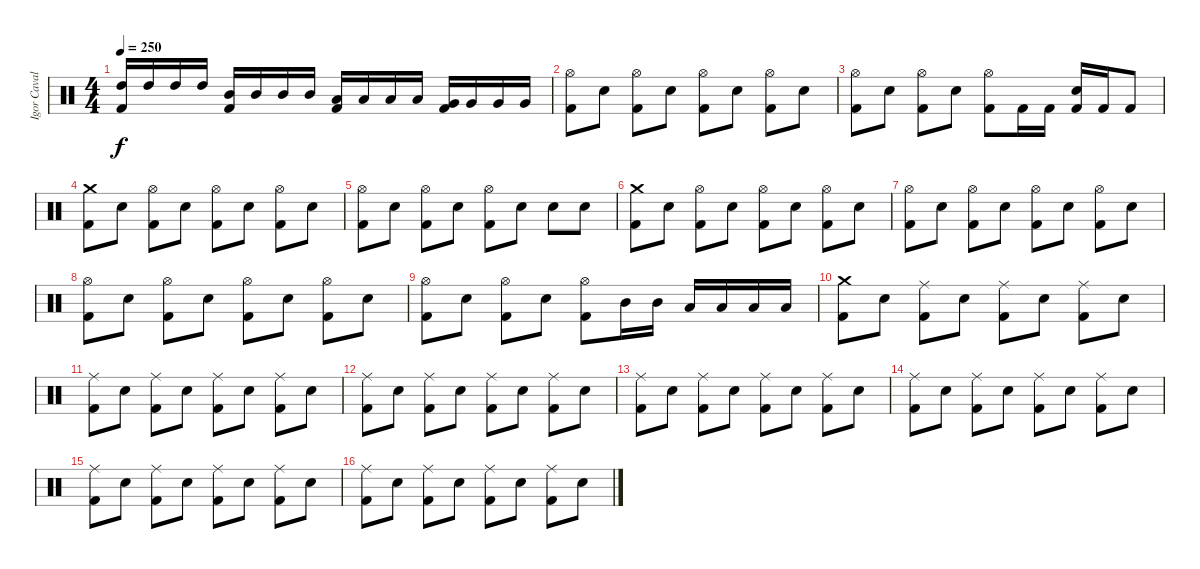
\track ("Igor Cavalera" "Igor Caval") {instrument percussion}
\staff {score}
\articulation defaults
\ts (4 4)
\tempo 250
\clef neutral
\ks c
("Kick (hit) 2" "High Tom (hit)").16{dy f} "High Tom (hit)".16 "High Tom (hit)".16 "High Tom (hit)".16 ("Kick (hit) 2" "Mid Tom (hit)").16 "Mid Tom (hit)".16 "Mid Tom (hit)".16 "Mid Tom (hit)".16 ("Kick (hit) 2" "Low Tom (hit)").16 "Low Tom (hit)".16 "Low Tom (hit)".16 "Low Tom (hit)".16 ("Kick (hit) 2" "Very Low Tom (hit)").16 "Very Low Tom (hit)".16 "Very Low Tom (hit)".16 "Very Low Tom (hit)".16 |
("Hi-Hat (open)" "Kick (hit) 2").8 "Electric Snare (hit)".8 ("Hi-Hat (open)" "Kick (hit) 2").8 "Electric Snare (hit)".8 ("Hi-Hat (open)" "Kick (hit) 2").8 "Electric Snare (hit)".8 ("Hi-Hat (open)" "Kick (hit) 2").8 "Electric Snare (hit)".8 |
("Hi-Hat (open)" "Kick (hit) 2").8 "Electric Snare (hit)".8 ("Hi-Hat (open)" "Kick (hit) 2").8 "Electric Snare (hit)".8 ("Hi-Hat (open)" "Kick (hit) 2").8 "Kick (hit) 2".16 "Kick (hit) 2".16 ("Electric Snare (hit)" "Kick (hit) 2").16 "Kick (hit) 2".16 "Kick (hit) 2".8 |
("Crash medium (hit)" "Kick (hit) 2").8 "Electric Snare (hit)".8 ("Hi-Hat (open)" "Kick (hit) 2").8 "Electric Snare (hit)".8 ("Hi-Hat (open)" "Kick (hit) 2").8 "Electric Snare (hit)".8 ("Hi-Hat (open)" "Kick (hit) 2").8 "Electric Snare (hit)".8 |
("Hi-Hat (open)" "Kick (hit) 2").8 "Electric Snare (hit)".8 ("Hi-Hat (open)" "Kick (hit) 2").8 "Electric Snare (hit)".8 ("Hi-Hat (open)" "Kick (hit) 2").8 "Electric Snare (hit)".8 "Electric Snare (hit)".8 "Electric Snare (hit)".8 |
("Crash medium (hit)" "Kick (hit) 2").8 "Electric Snare (hit)".8 ("Hi-Hat (open)" "Kick (hit) 2").8 "Electric Snare (hit)".8 ("Hi-Hat (open)" "Kick (hit) 2").8 "Electric Snare (hit)".8 ("Hi-Hat (open)" "Kick (hit) 2").8 "Electric Snare (hit)".8 |
("Hi-Hat (open)" "Kick (hit) 2").8 "Electric Snare (hit)".8 ("Hi-Hat (open)" "Kick (hit) 2").8 "Electric Snare (hit)".8 ("Hi-Hat (open)" "Kick (hit) 2").8 "Electric Snare (hit)".8 ("Hi-Hat (open)" "Kick (hit) 2").8 "Electric Snare (hit)".8 |
("Hi-Hat (open)" "Kick (hit) 2").8 "Electric Snare (hit)".8 ("Hi-Hat (open)" "Kick (hit) 2").8 "Electric Snare (hit)".8 ("Hi-Hat (open)" "Kick (hit) 2").8 "Electric Snare (hit)".8 ("Hi-Hat (open)" "Kick (hit) 2").8 "Electric Snare (hit)".8 |
("Hi-Hat (open)" "Kick (hit) 2").8 "Electric Snare (hit)".8 ("Hi-Hat (open)" "Kick (hit) 2").8 "Electric Snare (hit)".8 ("Hi-Hat (open)" "Kick (hit) 2").8 "Mid Tom (hit)".16 "Mid Tom (hit)".16 "Low Tom (hit)".16 "Low Tom (hit)".16 "Low Tom (hit)".16 "Low Tom (hit)".16 |
("Crash medium (hit)" "Kick (hit) 2").8 "Electric Snare (hit)".8 ("Ride (middle)" "Kick (hit) 2").8 "Electric Snare (hit)".8 ("Ride (middle)" "Kick (hit) 2").8 "Electric Snare (hit)".8 ("Ride (middle)" "Kick (hit) 2").8 "Electric Snare (hit)".8 |
("Ride (middle)" "Kick (hit) 2").8 "Electric Snare (hit)".8 ("Ride (middle)" "Kick (hit) 2").8 "Electric Snare (hit)".8 ("Ride (middle)" "Kick (hit) 2").8 "Electric Snare (hit)".8 ("Ride (middle)" "Kick (hit) 2").8 "Electric Snare (hit)".8 |
("Ride (middle)" "Kick (hit) 2").8 "Electric Snare (hit)".8 ("Ride (middle)" "Kick (hit) 2").8 "Electric Snare (hit)".8 ("Ride (middle)" "Kick (hit) 2").8 "Electric Snare (hit)".8 ("Ride (middle)" "Kick (hit) 2").8 "Electric Snare (hit)".8 |
("Ride (middle)" "Kick (hit) 2").8 "Electric Snare (hit)".8 ("Ride (middle)" "Kick (hit) 2").8 "Electric Snare (hit)".8 ("Ride (middle)" "Kick (hit) 2").8 "Electric Snare (hit)".8 ("Ride (middle)" "Kick (hit) 2").8 "Electric Snare (hit)".8 |
("Ride (middle)" "Kick (hit) 2").8 "Electric Snare (hit)".8 ("Ride (middle)" "Kick (hit) 2").8 "Electric Snare (hit)".8 ("Ride (middle)" "Kick (hit) 2").8 "Electric Snare (hit)".8 ("Ride (middle)" "Kick (hit) 2").8 "Electric Snare (hit)".8 |
("Ride (middle)" "Kick (hit) 2").8 "Electric Snare (hit)".8 ("Ride (middle)" "Kick (hit) 2").8 "Electric Snare (hit)".8 ("Ride (middle)" "Kick (hit) 2").8 "Electric Snare (hit)".8 ("Ride (middle)" "Kick (hit) 2").8 "Electric Snare (hit)".8 |
("Ride (middle)" "Kick (hit) 2").8 "Electric Snare (hit)".8 ("Ride (middle)" "Kick (hit) 2").8 "Electric Snare (hit)".8 ("Ride (middle)" "Kick (hit) 2").8 "Electric Snare (hit)".8 ("Ride (middle)" "Kick (hit) 2").8 "Electric Snare (hit)".8
